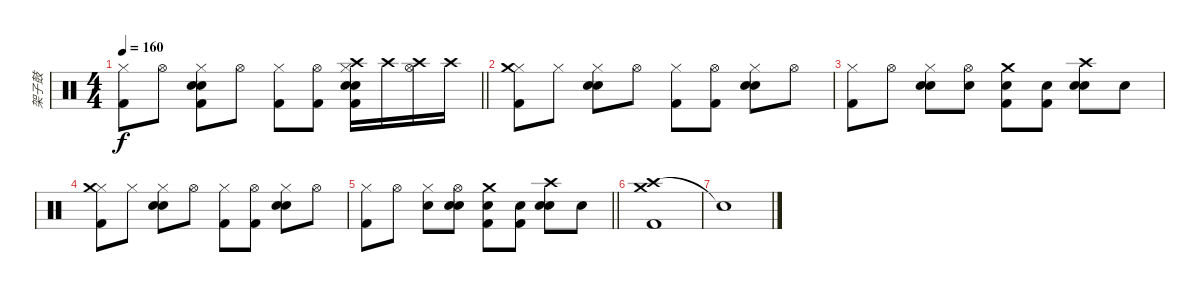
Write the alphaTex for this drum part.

\track ("架子鼓" "架子鼓") {instrument percussion}
\staff {score}
\articulation defaults
\ts (4 4)
\tempo 160
\clef neutral
\barLineRight lightlight
\ks c
("Hi-Hat (closed)" "Kick (hit) 2").8{dy f} "Hi-Hat (open)".8 ("Hi-Hat (closed)" "Electric Snare (hit)" "Hand Clap (hit)" "Kick (hit) 2").8 "Hi-Hat (open)".8 ("Hi-Hat (closed)" "Kick (hit) 2").8 ("Hi-Hat (open)" "Kick (hit) 2").8 ("Hi-Hat (closed)" "Electric Snare (hit)" "Hand Clap (hit)" "Crash high (hit)" "Kick (hit) 2").16 "Crash high (hit)".16 ("Hi-Hat (open)" "Crash high (hit)").16 "Crash high (hit)".16 |
("Hi-Hat (closed)" "Crash medium (hit)" "Kick (hit) 2").8 "Hi-Hat (closed)".8 ("Hi-Hat (closed)" "Electric Snare (hit)" "Hand Clap (hit)").8 "Hi-Hat (open)".8 ("Hi-Hat (closed)" "Kick (hit) 2").8 ("Hi-Hat (open)" "Kick (hit) 2").8 ("Hi-Hat (closed)" "Electric Snare (hit)" "Hand Clap (hit)").8 "Hi-Hat (open)".8 |
("Hi-Hat (closed)" "Kick (hit) 2").8 "Hi-Hat (open)".8 ("Hi-Hat (closed)" "Electric Snare (hit)" "Hand Clap (hit)").8 ("Hi-Hat (open)" "Electric Snare (hit)").8 ("Crash medium (hit)" "Electric Snare (hit)" "Kick (hit) 2").8 ("Electric Snare (hit)" "Kick (hit) 2").8 ("Crash high (hit)" "Electric Snare (hit)" "Hand Clap (hit)").8 "Electric Snare (hit)".8 |
("Hi-Hat (closed)" "Crash medium (hit)" "Kick (hit) 2").8 "Hi-Hat (closed)".8 ("Hi-Hat (closed)" "Electric Snare (hit)" "Hand Clap (hit)").8 "Hi-Hat (open)".8 ("Hi-Hat (closed)" "Kick (hit) 2").8 ("Hi-Hat (open)" "Kick (hit) 2").8 ("Hi-Hat (closed)" "Electric Snare (hit)" "Hand Clap (hit)").8 "Hi-Hat (open)".8 |
\barLineRight lightlight
("Hi-Hat (closed)" "Kick (hit) 2").8 "Hi-Hat (open)".8 ("Hi-Hat (closed)" "Electric Snare (hit)").8 ("Hi-Hat (open)" "Electric Snare (hit)" "Hand Clap (hit)").8 ("Crash medium (hit)" "Electric Snare (hit)" "Kick (hit) 2").8 ("Electric Snare (hit)" "Kick (hit) 2").8 ("Crash high (hit)" "Electric Snare (hit)" "Hand Clap (hit)").8 "Electric Snare (hit)".8 |
("Crash high (hit)" "Crash medium (hit)" "Kick (hit) 2").1 |
"Snare (hit)"{t}.1
